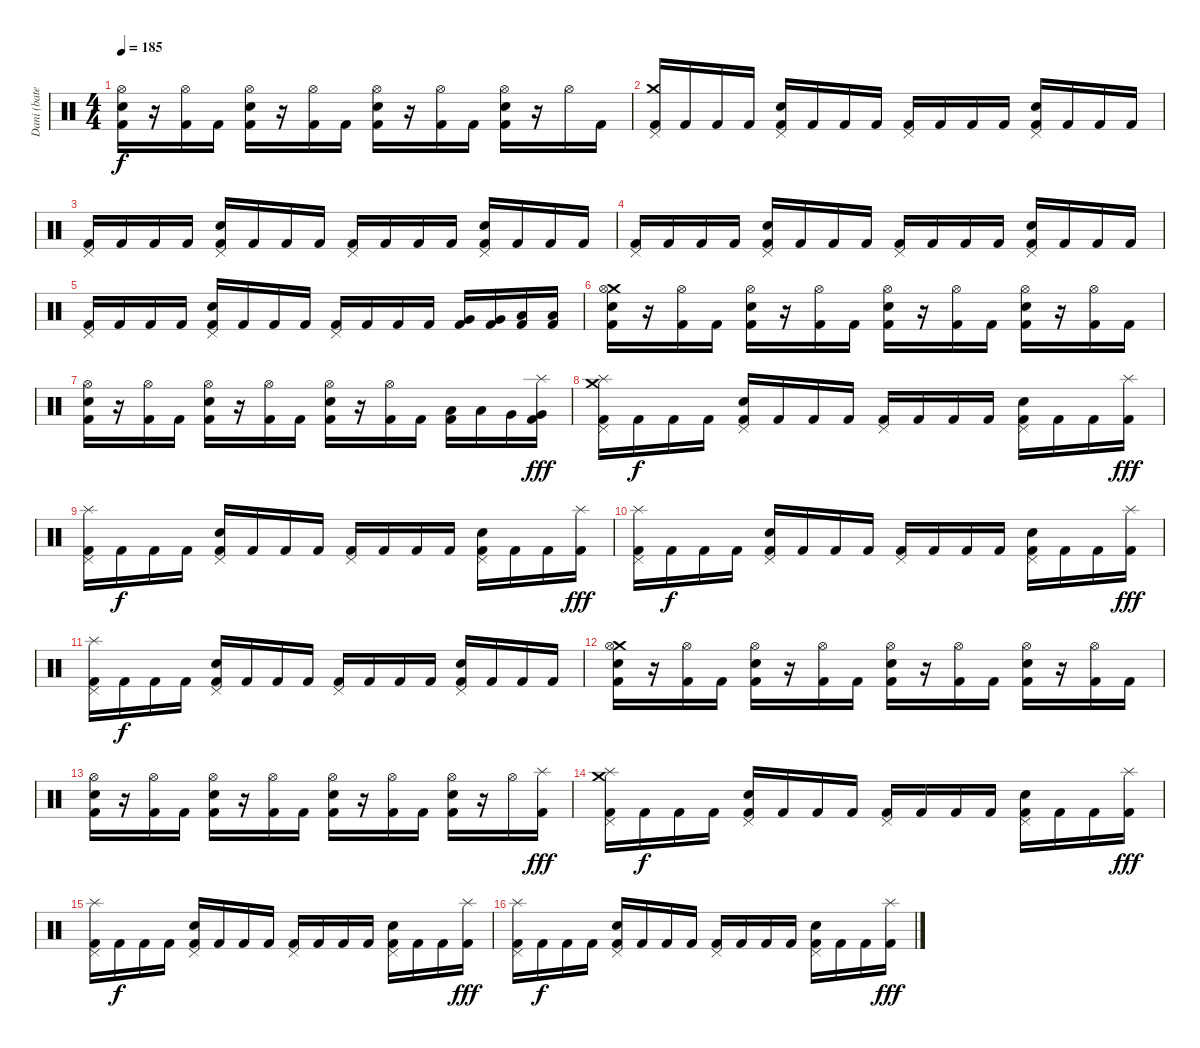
\track ("Dani (batería)" "Dani (bate") {instrument percussion}
\staff {score}
\articulation defaults
\ts (4 4)
\tempo 185
\clef neutral
\ks c
("Hi-Hat (open)" "Snare (hit) 2" "Kick (hit) 2").16{dy f} r.16 ("Hi-Hat (open)" "Kick (hit) 2").16 "Kick (hit) 2".16 ("Hi-Hat (open)" "Snare (hit) 2" "Kick (hit) 2").16 r.16 ("Hi-Hat (open)" "Kick (hit) 2").16 "Kick (hit) 2".16 ("Hi-Hat (open)" "Snare (hit) 2" "Kick (hit) 2").16 r.16 ("Hi-Hat (open)" "Kick (hit) 2").16 "Kick (hit) 2".16 ("Hi-Hat (open)" "Snare (hit) 2" "Kick (hit) 2").16 r.16 "Hi-Hat (open)".16 "Kick (hit) 2".16 |
("Crash medium (hit)" "Pedal Hi-Hat (hit)" "Kick (hit) 2").16 "Kick (hit) 2".16 "Kick (hit) 2".16 "Kick (hit) 2".16 ("Pedal Hi-Hat (hit)" "Snare (hit) 2" "Kick (hit) 2").16 "Kick (hit) 2".16 "Kick (hit) 2".16 "Kick (hit) 2".16 ("Pedal Hi-Hat (hit)" "Kick (hit) 2").16 "Kick (hit) 2".16 "Kick (hit) 2".16 "Kick (hit) 2".16 ("Pedal Hi-Hat (hit)" "Snare (hit) 2" "Kick (hit) 2").16 "Kick (hit) 2".16 "Kick (hit) 2".16 "Kick (hit) 2".16 |
("Pedal Hi-Hat (hit)" "Kick (hit) 2").16 "Kick (hit) 2".16 "Kick (hit) 2".16 "Kick (hit) 2".16 ("Pedal Hi-Hat (hit)" "Snare (hit) 2" "Kick (hit) 2").16 "Kick (hit) 2".16 "Kick (hit) 2".16 "Kick (hit) 2".16 ("Pedal Hi-Hat (hit)" "Kick (hit) 2").16 "Kick (hit) 2".16 "Kick (hit) 2".16 "Kick (hit) 2".16 ("Pedal Hi-Hat (hit)" "Snare (hit) 2" "Kick (hit) 2").16 "Kick (hit) 2".16 "Kick (hit) 2".16 "Kick (hit) 2".16 |
("Pedal Hi-Hat (hit)" "Kick (hit) 2").16 "Kick (hit) 2".16 "Kick (hit) 2".16 "Kick (hit) 2".16 ("Pedal Hi-Hat (hit)" "Snare (hit) 2" "Kick (hit) 2").16 "Kick (hit) 2".16 "Kick (hit) 2".16 "Kick (hit) 2".16 ("Pedal Hi-Hat (hit)" "Kick (hit) 2").16 "Kick (hit) 2".16 "Kick (hit) 2".16 "Kick (hit) 2".16 ("Pedal Hi-Hat (hit)" "Snare (hit) 2" "Kick (hit) 2").16 "Kick (hit) 2".16 "Kick (hit) 2".16 "Kick (hit) 2".16 |
("Pedal Hi-Hat (hit)" "Kick (hit) 2").16 "Kick (hit) 2".16 "Kick (hit) 2".16 "Kick (hit) 2".16 ("Pedal Hi-Hat (hit)" "Snare (hit) 2" "Kick (hit) 2").16 "Kick (hit) 2".16 "Kick (hit) 2".16 "Kick (hit) 2".16 ("Pedal Hi-Hat (hit)" "Kick (hit) 2").16 "Kick (hit) 2".16 "Kick (hit) 2".16 "Kick (hit) 2".16 ("Very Low Tom (hit)" "Kick (hit) 2").16 ("Very Low Tom (hit)" "Kick (hit) 2").16 ("Low Floor Tom (hit)" "Kick (hit) 2").16 ("Low Floor Tom (hit)" "Kick (hit) 2").16 |
("Crash medium (hit)" "Hi-Hat (open)" "Snare (hit) 2" "Kick (hit) 2").16 r.16 ("Hi-Hat (open)" "Kick (hit) 2").16 "Kick (hit) 2".16 ("Hi-Hat (open)" "Snare (hit) 2" "Kick (hit) 2").16 r.16 ("Hi-Hat (open)" "Kick (hit) 2").16 "Kick (hit) 2".16 ("Hi-Hat (open)" "Snare (hit) 2" "Kick (hit) 2").16 r.16 ("Hi-Hat (open)" "Kick (hit) 2").16 "Kick (hit) 2".16 ("Hi-Hat (open)" "Snare (hit) 2" "Kick (hit) 2").16 r.16 ("Hi-Hat (open)" "Kick (hit) 2").16 "Kick (hit) 2".16 |
("Hi-Hat (open)" "Snare (hit) 2" "Kick (hit) 2").16 r.16 ("Hi-Hat (open)" "Kick (hit) 2").16 "Kick (hit) 2".16 ("Hi-Hat (open)" "Snare (hit) 2" "Kick (hit) 2").16 r.16 ("Hi-Hat (open)" "Kick (hit) 2").16 "Kick (hit) 2".16 ("Hi-Hat (open)" "Snare (hit) 2" "Kick (hit) 2").16 r.16 ("Hi-Hat (open)" "Kick (hit) 2").16 "Kick (hit) 2".16 ("Low Tom (hit)" "Kick (hit) 2").16 "Low Tom (hit)".16 "Very Low Tom (hit)".16 ("Splash (hit)" "Very Low Tom (hit)" "Kick (hit) 2").16{dy fff} |
("Splash (hit)" "Crash medium (hit)" "Pedal Hi-Hat (hit)" "Kick (hit) 2").16 "Kick (hit) 2".16{dy f} "Kick (hit) 2".16 "Kick (hit) 2".16 ("Pedal Hi-Hat (hit)" "Snare (hit) 2" "Kick (hit) 2").16 "Kick (hit) 2".16 "Kick (hit) 2".16 "Kick (hit) 2".16 ("Pedal Hi-Hat (hit)" "Kick (hit) 2").16 "Kick (hit) 2".16 "Kick (hit) 2".16 "Kick (hit) 2".16 ("Pedal Hi-Hat (hit)" "Snare (hit) 2" "Kick (hit) 2").16 "Kick (hit) 2".16 "Kick (hit) 2".16 ("Splash (hit)" "Kick (hit) 2").16{dy fff} |
("Splash (hit)" "Pedal Hi-Hat (hit)" "Kick (hit) 2").16 "Kick (hit) 2".16{dy f} "Kick (hit) 2".16 "Kick (hit) 2".16 ("Pedal Hi-Hat (hit)" "Snare (hit) 2" "Kick (hit) 2").16 "Kick (hit) 2".16 "Kick (hit) 2".16 "Kick (hit) 2".16 ("Pedal Hi-Hat (hit)" "Kick (hit) 2").16 "Kick (hit) 2".16 "Kick (hit) 2".16 "Kick (hit) 2".16 ("Pedal Hi-Hat (hit)" "Snare (hit) 2" "Kick (hit) 2").16 "Kick (hit) 2".16 "Kick (hit) 2".16 ("Splash (hit)" "Kick (hit) 2").16{dy fff} |
("Splash (hit)" "Pedal Hi-Hat (hit)" "Kick (hit) 2").16 "Kick (hit) 2".16{dy f} "Kick (hit) 2".16 "Kick (hit) 2".16 ("Pedal Hi-Hat (hit)" "Snare (hit) 2" "Kick (hit) 2").16 "Kick (hit) 2".16 "Kick (hit) 2".16 "Kick (hit) 2".16 ("Pedal Hi-Hat (hit)" "Kick (hit) 2").16 "Kick (hit) 2".16 "Kick (hit) 2".16 "Kick (hit) 2".16 ("Pedal Hi-Hat (hit)" "Snare (hit) 2" "Kick (hit) 2").16 "Kick (hit) 2".16 "Kick (hit) 2".16 ("Splash (hit)" "Kick (hit) 2").16{dy fff} |
("Splash (hit)" "Pedal Hi-Hat (hit)" "Kick (hit) 2").16 "Kick (hit) 2".16{dy f} "Kick (hit) 2".16 "Kick (hit) 2".16 ("Pedal Hi-Hat (hit)" "Snare (hit) 2" "Kick (hit) 2").16 "Kick (hit) 2".16 "Kick (hit) 2".16 "Kick (hit) 2".16 ("Pedal Hi-Hat (hit)" "Kick (hit) 2").16 "Kick (hit) 2".16 "Kick (hit) 2".16 "Kick (hit) 2".16 ("Pedal Hi-Hat (hit)" "Snare (hit) 2" "Kick (hit) 2").16 "Kick (hit) 2".16 "Kick (hit) 2".16 "Kick (hit) 2".16 |
("Crash medium (hit)" "Hi-Hat (open)" "Snare (hit) 2" "Kick (hit) 2").16 r.16 ("Hi-Hat (open)" "Kick (hit) 2").16 "Kick (hit) 2".16 ("Hi-Hat (open)" "Snare (hit) 2" "Kick (hit) 2").16 r.16 ("Hi-Hat (open)" "Kick (hit) 2").16 "Kick (hit) 2".16 ("Hi-Hat (open)" "Snare (hit) 2" "Kick (hit) 2").16 r.16 ("Hi-Hat (open)" "Kick (hit) 2").16 "Kick (hit) 2".16 ("Hi-Hat (open)" "Snare (hit) 2" "Kick (hit) 2").16 r.16 ("Hi-Hat (open)" "Kick (hit) 2").16 "Kick (hit) 2".16 |
("Hi-Hat (open)" "Snare (hit) 2" "Kick (hit) 2").16 r.16 ("Hi-Hat (open)" "Kick (hit) 2").16 "Kick (hit) 2".16 ("Hi-Hat (open)" "Snare (hit) 2" "Kick (hit) 2").16 r.16 ("Hi-Hat (open)" "Kick (hit) 2").16 "Kick (hit) 2".16 ("Hi-Hat (open)" "Snare (hit) 2" "Kick (hit) 2").16 r.16 ("Hi-Hat (open)" "Kick (hit) 2").16 "Kick (hit) 2".16 ("Hi-Hat (open)" "Snare (hit) 2" "Kick (hit) 2").16 r.16 "Hi-Hat (open)".16 ("Splash (hit)" "Kick (hit) 2").16{dy fff} |
("Splash (hit)" "Crash medium (hit)" "Pedal Hi-Hat (hit)" "Kick (hit) 2").16 "Kick (hit) 2".16{dy f} "Kick (hit) 2".16 "Kick (hit) 2".16 ("Pedal Hi-Hat (hit)" "Snare (hit) 2" "Kick (hit) 2").16 "Kick (hit) 2".16 "Kick (hit) 2".16 "Kick (hit) 2".16 ("Pedal Hi-Hat (hit)" "Kick (hit) 2").16 "Kick (hit) 2".16 "Kick (hit) 2".16 "Kick (hit) 2".16 ("Pedal Hi-Hat (hit)" "Snare (hit) 2" "Kick (hit) 2").16 "Kick (hit) 2".16 "Kick (hit) 2".16 ("Splash (hit)" "Kick (hit) 2").16{dy fff} |
("Splash (hit)" "Pedal Hi-Hat (hit)" "Kick (hit) 2").16 "Kick (hit) 2".16{dy f} "Kick (hit) 2".16 "Kick (hit) 2".16 ("Pedal Hi-Hat (hit)" "Snare (hit) 2" "Kick (hit) 2").16 "Kick (hit) 2".16 "Kick (hit) 2".16 "Kick (hit) 2".16 ("Pedal Hi-Hat (hit)" "Kick (hit) 2").16 "Kick (hit) 2".16 "Kick (hit) 2".16 "Kick (hit) 2".16 ("Pedal Hi-Hat (hit)" "Snare (hit) 2" "Kick (hit) 2").16 "Kick (hit) 2".16 "Kick (hit) 2".16 ("Splash (hit)" "Kick (hit) 2").16{dy fff} |
("Splash (hit)" "Pedal Hi-Hat (hit)" "Kick (hit) 2").16 "Kick (hit) 2".16{dy f} "Kick (hit) 2".16 "Kick (hit) 2".16 ("Pedal Hi-Hat (hit)" "Snare (hit) 2" "Kick (hit) 2").16 "Kick (hit) 2".16 "Kick (hit) 2".16 "Kick (hit) 2".16 ("Pedal Hi-Hat (hit)" "Kick (hit) 2").16 "Kick (hit) 2".16 "Kick (hit) 2".16 "Kick (hit) 2".16 ("Pedal Hi-Hat (hit)" "Snare (hit) 2" "Kick (hit) 2").16 "Kick (hit) 2".16 "Kick (hit) 2".16 ("Splash (hit)" "Kick (hit) 2").16{dy fff}
